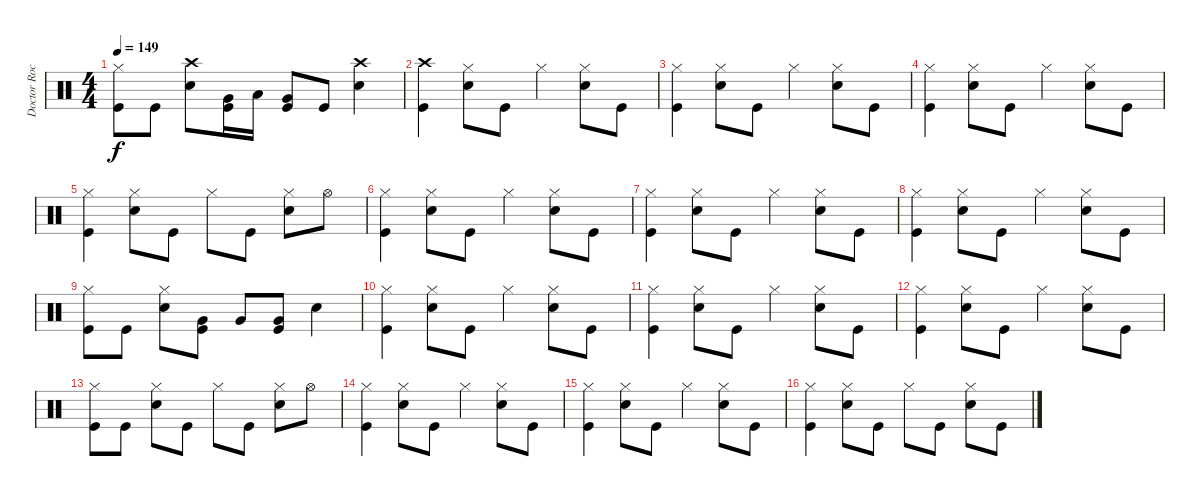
\track ("Doctor Rock" "Doctor Roc") {instrument percussion}
\staff {score}
\articulation defaults
\ts (4 4)
\tempo 149
\clef neutral
\ks c
("Hi-Hat (closed)" "Kick (hit)").8{dy f} "Kick (hit)".8 ("Crash high (hit)" "Snare (hit) 2").8 ("Kick (hit)" "Very Low Tom (hit)").16 "Low Tom (hit)".16 ("Kick (hit)" "Very Low Tom (hit)").8 "Kick (hit)".8 ("Crash high (hit)" "Snare (hit) 2").4 |
("Crash high (hit)" "Kick (hit)").4 ("Hi-Hat (closed)" "Snare (hit) 2").8 "Kick (hit)".8 "Hi-Hat (closed)".4 ("Hi-Hat (closed)" "Snare (hit) 2").8 "Kick (hit)".8 |
("Hi-Hat (closed)" "Kick (hit)").4 ("Hi-Hat (closed)" "Snare (hit) 2").8 "Kick (hit)".8 "Hi-Hat (closed)".4 ("Hi-Hat (closed)" "Snare (hit) 2").8 "Kick (hit)".8 |
("Hi-Hat (closed)" "Kick (hit)").4 ("Hi-Hat (closed)" "Snare (hit) 2").8 "Kick (hit)".8 "Hi-Hat (closed)".4 ("Hi-Hat (closed)" "Snare (hit) 2").8 "Kick (hit)".8 |
("Hi-Hat (closed)" "Kick (hit)").4 ("Hi-Hat (closed)" "Snare (hit) 2").8 "Kick (hit)".8 "Hi-Hat (closed)".8 "Kick (hit)".8 ("Hi-Hat (closed)" "Snare (hit) 2").8 "Hi-Hat (open)".8 |
("Hi-Hat (closed)" "Kick (hit)").4 ("Hi-Hat (closed)" "Snare (hit) 2").8 "Kick (hit)".8 "Hi-Hat (closed)".4 ("Hi-Hat (closed)" "Snare (hit) 2").8 "Kick (hit)".8 |
("Hi-Hat (closed)" "Kick (hit)").4 ("Hi-Hat (closed)" "Snare (hit) 2").8 "Kick (hit)".8 "Hi-Hat (closed)".4 ("Hi-Hat (closed)" "Snare (hit) 2").8 "Kick (hit)".8 |
("Hi-Hat (closed)" "Kick (hit)").4 ("Hi-Hat (closed)" "Snare (hit) 2").8 "Kick (hit)".8 "Hi-Hat (closed)".4 ("Hi-Hat (closed)" "Snare (hit) 2").8 "Kick (hit)".8 |
("Hi-Hat (closed)" "Kick (hit)").8 "Kick (hit)".8 ("Hi-Hat (closed)" "Snare (hit) 2").8 ("Kick (hit)" "Very Low Tom (hit)").8 "Very Low Tom (hit)".8 ("Kick (hit)" "Very Low Tom (hit)").8 "Snare (hit) 2".4 |
("Hi-Hat (closed)" "Kick (hit)").4 ("Hi-Hat (closed)" "Snare (hit) 2").8 "Kick (hit)".8 "Hi-Hat (closed)".4 ("Hi-Hat (closed)" "Snare (hit) 2").8 "Kick (hit)".8 |
("Hi-Hat (closed)" "Kick (hit)").4 ("Hi-Hat (closed)" "Snare (hit) 2").8 "Kick (hit)".8 "Hi-Hat (closed)".4 ("Hi-Hat (closed)" "Snare (hit) 2").8 "Kick (hit)".8 |
("Hi-Hat (closed)" "Kick (hit)").4 ("Hi-Hat (closed)" "Snare (hit) 2").8 "Kick (hit)".8 "Hi-Hat (closed)".4 ("Hi-Hat (closed)" "Snare (hit) 2").8 "Kick (hit)".8 |
("Hi-Hat (closed)" "Kick (hit)").8 "Kick (hit)".8 ("Hi-Hat (closed)" "Snare (hit) 2").8 "Kick (hit)".8 "Hi-Hat (closed)".8 "Kick (hit)".8 ("Hi-Hat (closed)" "Snare (hit) 2").8 "Hi-Hat (open)".8 |
("Hi-Hat (closed)" "Kick (hit)").4 ("Hi-Hat (closed)" "Snare (hit) 2").8 "Kick (hit)".8 "Hi-Hat (closed)".4 ("Hi-Hat (closed)" "Snare (hit) 2").8 "Kick (hit)".8 |
("Hi-Hat (closed)" "Kick (hit)").4 ("Hi-Hat (closed)" "Snare (hit) 2").8 "Kick (hit)".8 "Hi-Hat (closed)".4 ("Hi-Hat (closed)" "Snare (hit) 2").8 "Kick (hit)".8 |
("Hi-Hat (closed)" "Kick (hit)").4 ("Hi-Hat (closed)" "Snare (hit) 2").8 "Kick (hit)".8 "Hi-Hat (closed)".8 "Kick (hit)".8 ("Hi-Hat (closed)" "Snare (hit) 2").8 "Kick (hit)".8
